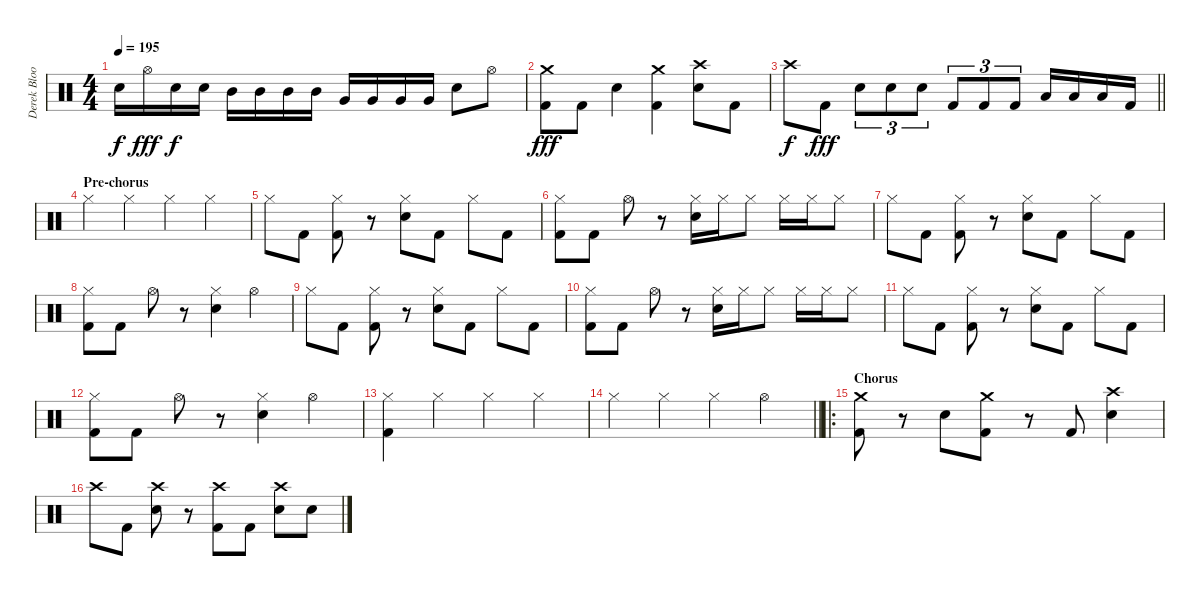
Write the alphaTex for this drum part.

\track ("Derek Bloom" "Derek Bloo") {instrument percussion}
\staff {score}
\articulation defaults
\ts (4 4)
\tempo 195
\clef neutral
\ks c "Electric Snare (hit)".16{dy f} "Hi-Hat (open)".16{dy fff} "Electric Snare (hit)".16{dy f} "Electric Snare (hit)".16 "Mid Tom (hit)".16 "Mid Tom (hit)".16 "Mid Tom (hit)".16 "Mid Tom (hit)".16 "Very Low Tom (hit)".16 "Very Low Tom (hit)".16 "Very Low Tom (hit)".16 "Very Low Tom (hit)".16 "Electric Snare (hit)".8 "Hi-Hat (open)".8
|
("Crash medium (hit)" "Kick (hit) 2").8{dy fff} "Kick (hit) 2".8 "Electric Snare (hit)".4 ("Crash medium (hit)" "Kick (hit) 2").4 ("Crash high (hit)" "Electric Snare (hit)").8 "Kick (hit) 2".8 |
\barLineRight lightlight "Crash high (hit)".8{dy f} "Kick (hit) 2".8{dy fff} "Electric Snare (hit)".8{tu (3 2)} "Electric Snare (hit)".8{tu (3 2)} "Electric Snare (hit)".8{tu (3 2)} "Kick (hit) 2".8{tu (3 2)} "Kick (hit) 2".8{tu (3 2)} "Kick (hit) 2".8{tu (3 2)} "Low Floor Tom (hit)".16 "Low Floor Tom (hit)".16 "Low Floor Tom (hit)".16 "Kick (hit) 2".16
|
\section ("" "Pre-chorus")
"Hi-Hat (closed)".4 "Hi-Hat (closed)".4 "Hi-Hat (closed)".4 "Hi-Hat (closed)".4 |
"Hi-Hat (closed)".8 "Kick (hit) 2".8 ("Hi-Hat (closed)" "Kick (hit) 2").8 r.8 ("Hi-Hat (closed)" "Electric Snare (hit)").8 "Kick (hit) 2".8 "Hi-Hat (closed)".8 "Kick (hit) 2".8 |
("Hi-Hat (closed)" "Kick (hit) 2").8 "Kick (hit) 2".8 "Hi-Hat (open)".8 r.8 ("Hi-Hat (closed)" "Electric Snare (hit)").16 "Hi-Hat (closed)".16 "Hi-Hat (closed)".8 "Hi-Hat (closed)".16 "Hi-Hat (closed)".16 "Hi-Hat (closed)".8 |
"Hi-Hat (closed)".8 "Kick (hit) 2".8 ("Hi-Hat (closed)" "Kick (hit) 2").8 r.8 ("Hi-Hat (closed)" "Electric Snare (hit)").8 "Kick (hit) 2".8 "Hi-Hat (closed)".8 "Kick (hit) 2".8 |
("Hi-Hat (closed)" "Kick (hit) 2").8 "Kick (hit) 2".8 "Hi-Hat (open)".8 r.8 ("Hi-Hat (closed)" "Electric Snare (hit)").4 "Hi-Hat (open)".4 |
"Hi-Hat (closed)".8 "Kick (hit) 2".8 ("Hi-Hat (closed)" "Kick (hit) 2").8 r.8 ("Hi-Hat (closed)" "Electric Snare (hit)").8 "Kick (hit) 2".8 "Hi-Hat (closed)".8 "Kick (hit) 2".8 |
("Hi-Hat (closed)" "Kick (hit) 2").8 "Kick (hit) 2".8 "Hi-Hat (open)".8 r.8 ("Hi-Hat (closed)" "Electric Snare (hit)").16 "Hi-Hat (closed)".16 "Hi-Hat (closed)".8 "Hi-Hat (closed)".16 "Hi-Hat (closed)".16 "Hi-Hat (closed)".8 |
"Hi-Hat (closed)".8 "Kick (hit) 2".8 ("Hi-Hat (closed)" "Kick (hit) 2").8 r.8 ("Hi-Hat (closed)" "Electric Snare (hit)").8 "Kick (hit) 2".8 "Hi-Hat (closed)".8 "Kick (hit) 2".8 |
("Hi-Hat (closed)" "Kick (hit) 2").8 "Kick (hit) 2".8 "Hi-Hat (open)".8 r.8 ("Hi-Hat (closed)" "Electric Snare (hit)").4 "Hi-Hat (open)".4 |
("Hi-Hat (closed)" "Kick (hit) 2").4 "Hi-Hat (closed)".4 "Hi-Hat (closed)".4 "Hi-Hat (closed)".4 |
\barLineRight lightlight "Hi-Hat (closed)".4 "Hi-Hat (closed)".4 "Hi-Hat (closed)".4 "Hi-Hat (open)".4
|
\ro
\section ("" "Chorus")
("Crash medium (hit)" "Kick (hit) 2").8 r.8 "Electric Snare (hit)".8 ("Crash medium (hit)" "Kick (hit) 2").8 r.8 "Kick (hit) 2".8 ("Crash high (hit)" "Snare (hit) 2").4 |
"Crash high (hit)".8 "Kick (hit) 2".8 ("Crash high (hit)" "Electric Snare (hit)").8 r.8 ("Crash high (hit)" "Kick (hit) 2").8 "Kick (hit) 2".8 ("Crash high (hit)" "Electric Snare (hit)").8 "Electric Snare (hit)".8
